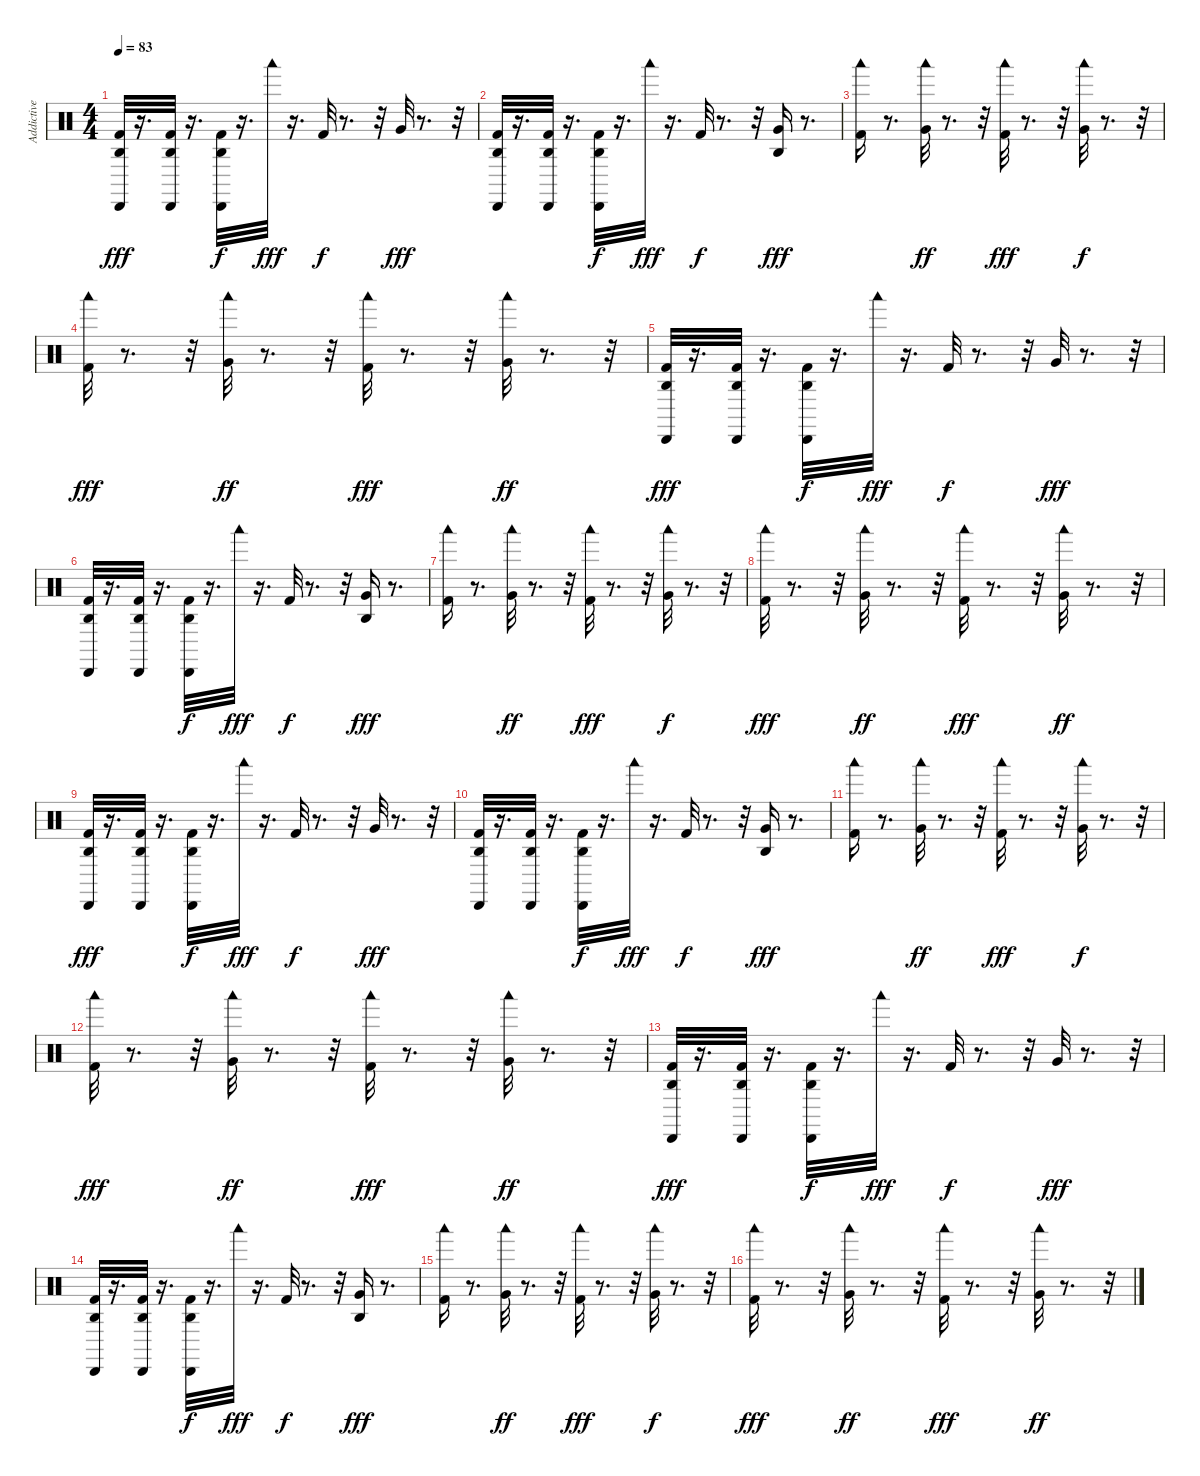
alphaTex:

\track ("Addictive Drums 2 01" "Addictive ") {instrument percussion}
\staff {score}
\articulation defaults
\ts (4 4)
\tempo 83
\clef neutral
\ks c
("Kick (hit) 2" "Cabasa (hit)" "Agogo high (hit)").32{dy fff} r.16{d} ("Kick (hit) 2" "Cabasa (hit)" "Agogo high (hit)").32 r.16{d} ("Cabasa (hit)" "Kick (hit) 2" "Agogo high (hit)").32{dy f} r.16{d} "Woodblock low (hit)".32{dy fff} r.16{d} "Kick (hit) 2".32{dy f} r.8{d} r.32 "Very Low Tom (hit)".32{dy fff} r.8{d} r.32 |
("Kick (hit) 2" "Cabasa (hit)" "Agogo high (hit)").32 r.16{d} ("Kick (hit) 2" "Cabasa (hit)" "Agogo high (hit)").32 r.16{d} ("Cabasa (hit)" "Kick (hit) 2" "Agogo high (hit)").32{dy f} r.16{d} "Woodblock low (hit)".32{dy fff} r.16{d} "Kick (hit) 2".32{dy f} r.8{d} r.32 ("Very Low Tom (hit)" "Agogo high (hit)").16{dy fff} r.8{d} |
("Woodblock low (hit)" "Kick (hit) 2").16 r.8{d} ("Woodblock low (hit)" "Very Low Tom (hit)").32{dy ff} r.8{d} r.32 ("Kick (hit) 2" "Woodblock low (hit)").32{dy fff} r.8{d} r.32 ("Very Low Tom (hit)" "Woodblock low (hit)").32{dy f} r.8{d} r.32 |
("Woodblock low (hit)" "Kick (hit) 2").32{dy fff} r.8{d} r.32 ("Very Low Tom (hit)" "Woodblock low (hit)").32{dy ff} r.8{d} r.32 ("Kick (hit) 2" "Woodblock low (hit)").32{dy fff} r.8{d} r.32 ("Very Low Tom (hit)" "Woodblock low (hit)").32{dy ff} r.8{d} r.32 |
("Kick (hit) 2" "Cabasa (hit)" "Agogo high (hit)").32{dy fff} r.16{d} ("Kick (hit) 2" "Cabasa (hit)" "Agogo high (hit)").32 r.16{d} ("Cabasa (hit)" "Kick (hit) 2" "Agogo high (hit)").32{dy f} r.16{d} "Woodblock low (hit)".32{dy fff} r.16{d} "Kick (hit) 2".32{dy f} r.8{d} r.32 "Very Low Tom (hit)".32{dy fff} r.8{d} r.32 |
("Kick (hit) 2" "Cabasa (hit)" "Agogo high (hit)").32 r.16{d} ("Kick (hit) 2" "Cabasa (hit)" "Agogo high (hit)").32 r.16{d} ("Cabasa (hit)" "Kick (hit) 2" "Agogo high (hit)").32{dy f} r.16{d} "Woodblock low (hit)".32{dy fff} r.16{d} "Kick (hit) 2".32{dy f} r.8{d} r.32 ("Very Low Tom (hit)" "Agogo high (hit)").16{dy fff} r.8{d} |
("Woodblock low (hit)" "Kick (hit) 2").16 r.8{d} ("Woodblock low (hit)" "Very Low Tom (hit)").32{dy ff} r.8{d} r.32 ("Kick (hit) 2" "Woodblock low (hit)").32{dy fff} r.8{d} r.32 ("Very Low Tom (hit)" "Woodblock low (hit)").32{dy f} r.8{d} r.32 |
("Woodblock low (hit)" "Kick (hit) 2").32{dy fff} r.8{d} r.32 ("Very Low Tom (hit)" "Woodblock low (hit)").32{dy ff} r.8{d} r.32 ("Kick (hit) 2" "Woodblock low (hit)").32{dy fff} r.8{d} r.32 ("Very Low Tom (hit)" "Woodblock low (hit)").32{dy ff} r.8{d} r.32 |
("Kick (hit) 2" "Cabasa (hit)" "Agogo high (hit)").32{dy fff} r.16{d} ("Kick (hit) 2" "Cabasa (hit)" "Agogo high (hit)").32 r.16{d} ("Cabasa (hit)" "Kick (hit) 2" "Agogo high (hit)").32{dy f} r.16{d} "Woodblock low (hit)".32{dy fff} r.16{d} "Kick (hit) 2".32{dy f} r.8{d} r.32 "Very Low Tom (hit)".32{dy fff} r.8{d} r.32 |
("Kick (hit) 2" "Cabasa (hit)" "Agogo high (hit)").32 r.16{d} ("Kick (hit) 2" "Cabasa (hit)" "Agogo high (hit)").32 r.16{d} ("Cabasa (hit)" "Kick (hit) 2" "Agogo high (hit)").32{dy f} r.16{d} "Woodblock low (hit)".32{dy fff} r.16{d} "Kick (hit) 2".32{dy f} r.8{d} r.32 ("Very Low Tom (hit)" "Agogo high (hit)").16{dy fff} r.8{d} |
("Woodblock low (hit)" "Kick (hit) 2").16 r.8{d} ("Woodblock low (hit)" "Very Low Tom (hit)").32{dy ff} r.8{d} r.32 ("Kick (hit) 2" "Woodblock low (hit)").32{dy fff} r.8{d} r.32 ("Very Low Tom (hit)" "Woodblock low (hit)").32{dy f} r.8{d} r.32 |
("Woodblock low (hit)" "Kick (hit) 2").32{dy fff} r.8{d} r.32 ("Very Low Tom (hit)" "Woodblock low (hit)").32{dy ff} r.8{d} r.32 ("Kick (hit) 2" "Woodblock low (hit)").32{dy fff} r.8{d} r.32 ("Very Low Tom (hit)" "Woodblock low (hit)").32{dy ff} r.8{d} r.32 |
("Kick (hit) 2" "Cabasa (hit)" "Agogo high (hit)").32{dy fff} r.16{d} ("Kick (hit) 2" "Cabasa (hit)" "Agogo high (hit)").32 r.16{d} ("Cabasa (hit)" "Kick (hit) 2" "Agogo high (hit)").32{dy f} r.16{d} "Woodblock low (hit)".32{dy fff} r.16{d} "Kick (hit) 2".32{dy f} r.8{d} r.32 "Very Low Tom (hit)".32{dy fff} r.8{d} r.32 |
("Kick (hit) 2" "Cabasa (hit)" "Agogo high (hit)").32 r.16{d} ("Kick (hit) 2" "Cabasa (hit)" "Agogo high (hit)").32 r.16{d} ("Cabasa (hit)" "Kick (hit) 2" "Agogo high (hit)").32{dy f} r.16{d} "Woodblock low (hit)".32{dy fff} r.16{d} "Kick (hit) 2".32{dy f} r.8{d} r.32 ("Very Low Tom (hit)" "Agogo high (hit)").16{dy fff} r.8{d} |
("Woodblock low (hit)" "Kick (hit) 2").16 r.8{d} ("Woodblock low (hit)" "Very Low Tom (hit)").32{dy ff} r.8{d} r.32 ("Kick (hit) 2" "Woodblock low (hit)").32{dy fff} r.8{d} r.32 ("Very Low Tom (hit)" "Woodblock low (hit)").32{dy f} r.8{d} r.32 |
("Woodblock low (hit)" "Kick (hit) 2").32{dy fff} r.8{d} r.32 ("Very Low Tom (hit)" "Woodblock low (hit)").32{dy ff} r.8{d} r.32 ("Kick (hit) 2" "Woodblock low (hit)").32{dy fff} r.8{d} r.32 ("Very Low Tom (hit)" "Woodblock low (hit)").32{dy ff} r.8{d} r.32
